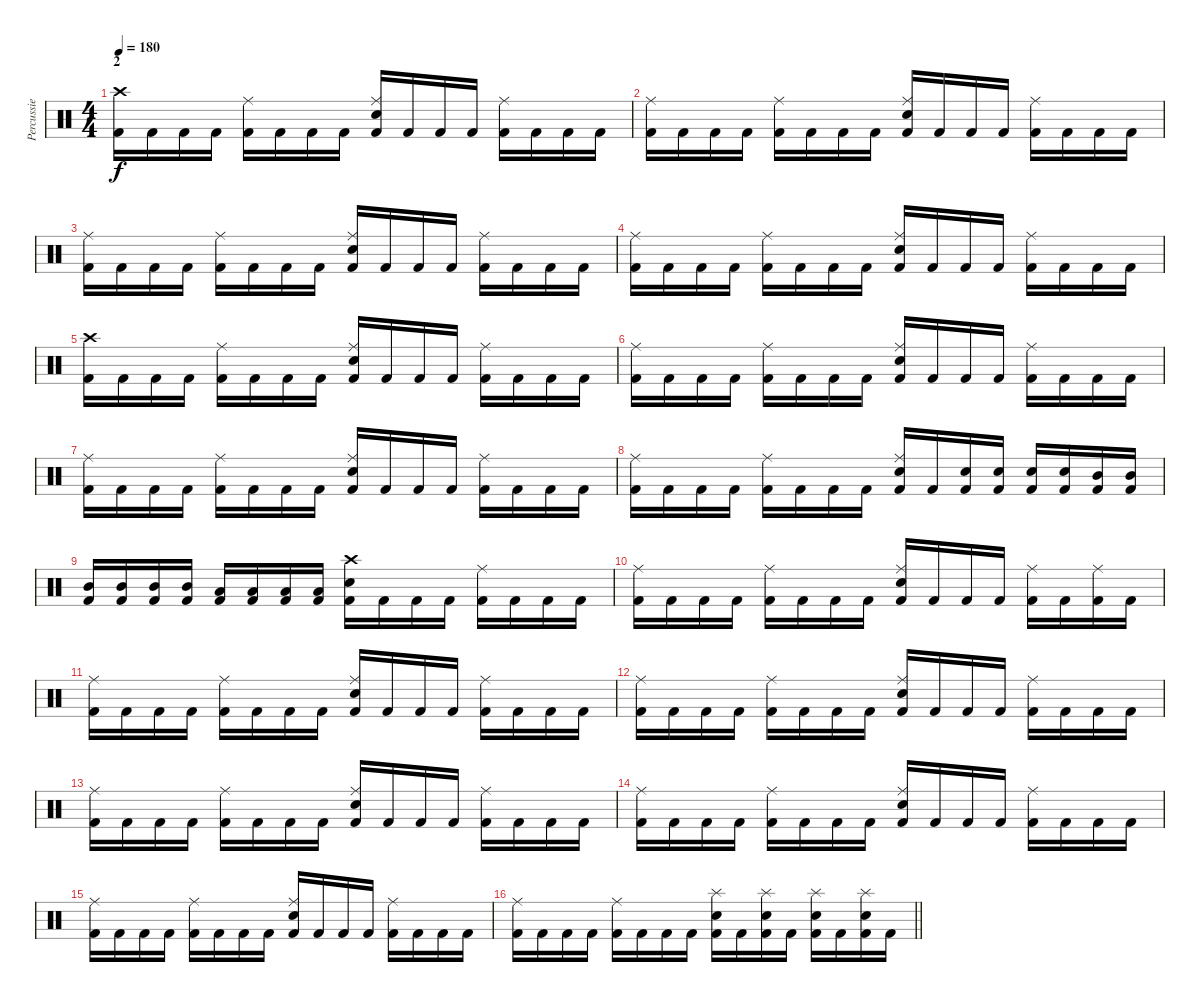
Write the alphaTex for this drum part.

\track ("Percussie" "Percussie") {instrument percussion}
\staff {score}
\articulation defaults
\ts (4 4)
\section ("" "2")
\tempo 180
\clef neutral
\ks c
("Crash high (hit)" "Kick (hit) 2").16{dy f} "Kick (hit) 2".16 "Kick (hit) 2".16 "Kick (hit) 2".16 ("Ride (middle)" "Kick (hit) 2").16 "Kick (hit) 2".16 "Kick (hit) 2".16 "Kick (hit) 2".16 ("Ride (middle)" "Snare (hit) 2" "Kick (hit) 2").16 "Kick (hit) 2".16 "Kick (hit) 2".16 "Kick (hit) 2".16 ("Ride (middle)" "Kick (hit) 2").16 "Kick (hit) 2".16 "Kick (hit) 2".16 "Kick (hit) 2".16 |
("Ride (middle)" "Kick (hit) 2").16 "Kick (hit) 2".16 "Kick (hit) 2".16 "Kick (hit) 2".16 ("Ride (middle)" "Kick (hit) 2").16 "Kick (hit) 2".16 "Kick (hit) 2".16 "Kick (hit) 2".16 ("Ride (middle)" "Snare (hit) 2" "Kick (hit) 2").16 "Kick (hit) 2".16 "Kick (hit) 2".16 "Kick (hit) 2".16 ("Ride (middle)" "Kick (hit) 2").16 "Kick (hit) 2".16 "Kick (hit) 2".16 "Kick (hit) 2".16 |
("Ride (middle)" "Kick (hit) 2").16 "Kick (hit) 2".16 "Kick (hit) 2".16 "Kick (hit) 2".16 ("Ride (middle)" "Kick (hit) 2").16 "Kick (hit) 2".16 "Kick (hit) 2".16 "Kick (hit) 2".16 ("Ride (middle)" "Snare (hit) 2" "Kick (hit) 2").16 "Kick (hit) 2".16 "Kick (hit) 2".16 "Kick (hit) 2".16 ("Ride (middle)" "Kick (hit) 2").16 "Kick (hit) 2".16 "Kick (hit) 2".16 "Kick (hit) 2".16 |
("Ride (middle)" "Kick (hit) 2").16 "Kick (hit) 2".16 "Kick (hit) 2".16 "Kick (hit) 2".16 ("Ride (middle)" "Kick (hit) 2").16 "Kick (hit) 2".16 "Kick (hit) 2".16 "Kick (hit) 2".16 ("Ride (middle)" "Snare (hit) 2" "Kick (hit) 2").16 "Kick (hit) 2".16 "Kick (hit) 2".16 "Kick (hit) 2".16 ("Ride (middle)" "Kick (hit) 2").16 "Kick (hit) 2".16 "Kick (hit) 2".16 "Kick (hit) 2".16 |
("Crash high (hit)" "Kick (hit) 2").16 "Kick (hit) 2".16 "Kick (hit) 2".16 "Kick (hit) 2".16 ("Ride (middle)" "Kick (hit) 2").16 "Kick (hit) 2".16 "Kick (hit) 2".16 "Kick (hit) 2".16 ("Ride (middle)" "Snare (hit) 2" "Kick (hit) 2").16 "Kick (hit) 2".16 "Kick (hit) 2".16 "Kick (hit) 2".16 ("Ride (middle)" "Kick (hit) 2").16 "Kick (hit) 2".16 "Kick (hit) 2".16 "Kick (hit) 2".16 |
("Ride (middle)" "Kick (hit) 2").16 "Kick (hit) 2".16 "Kick (hit) 2".16 "Kick (hit) 2".16 ("Ride (middle)" "Kick (hit) 2").16 "Kick (hit) 2".16 "Kick (hit) 2".16 "Kick (hit) 2".16 ("Ride (middle)" "Snare (hit) 2" "Kick (hit) 2").16 "Kick (hit) 2".16 "Kick (hit) 2".16 "Kick (hit) 2".16 ("Ride (middle)" "Kick (hit) 2").16 "Kick (hit) 2".16 "Kick (hit) 2".16 "Kick (hit) 2".16 |
("Ride (middle)" "Kick (hit) 2").16 "Kick (hit) 2".16 "Kick (hit) 2".16 "Kick (hit) 2".16 ("Ride (middle)" "Kick (hit) 2").16 "Kick (hit) 2".16 "Kick (hit) 2".16 "Kick (hit) 2".16 ("Ride (middle)" "Snare (hit) 2" "Kick (hit) 2").16 "Kick (hit) 2".16 "Kick (hit) 2".16 "Kick (hit) 2".16 ("Ride (middle)" "Kick (hit) 2").16 "Kick (hit) 2".16 "Kick (hit) 2".16 "Kick (hit) 2".16 |
("Ride (middle)" "Kick (hit) 2").16 "Kick (hit) 2".16 "Kick (hit) 2".16 "Kick (hit) 2".16 ("Ride (middle)" "Kick (hit) 2").16 "Kick (hit) 2".16 "Kick (hit) 2".16 "Kick (hit) 2".16 ("Ride (middle)" "Snare (hit) 2" "Kick (hit) 2").16 "Kick (hit) 2".16 ("Snare (hit) 2" "Kick (hit) 2").16 ("Snare (hit) 2" "Kick (hit) 2").16 ("Snare (hit) 2" "Kick (hit) 2").16 ("Snare (hit) 2" "Kick (hit) 2").16 ("Mid Tom (hit)" "Kick (hit) 2").16 ("Mid Tom (hit)" "Kick (hit) 2").16 |
("Mid Tom (hit)" "Kick (hit) 2").16 ("Mid Tom (hit)" "Kick (hit) 2").16 ("Mid Tom (hit)" "Kick (hit) 2").16 ("Mid Tom (hit)" "Kick (hit) 2").16 ("Low Tom (hit)" "Kick (hit) 2").16 ("Low Tom (hit)" "Kick (hit) 2").16 ("Low Tom (hit)" "Kick (hit) 2").16 ("Low Tom (hit)" "Kick (hit) 2").16 ("Crash high (hit)" "Snare (hit) 2" "Kick (hit) 2").16 "Kick (hit) 2".16 "Kick (hit) 2".16 "Kick (hit) 2".16 ("Ride (middle)" "Kick (hit) 2").16 "Kick (hit) 2".16 "Kick (hit) 2".16 "Kick (hit) 2".16 |
("Ride (middle)" "Kick (hit) 2").16 "Kick (hit) 2".16 "Kick (hit) 2".16 "Kick (hit) 2".16 ("Ride (middle)" "Kick (hit) 2").16 "Kick (hit) 2".16 "Kick (hit) 2".16 "Kick (hit) 2".16 ("Ride (middle)" "Snare (hit) 2" "Kick (hit) 2").16 "Kick (hit) 2".16 "Kick (hit) 2".16 "Kick (hit) 2".16 ("Ride (middle)" "Kick (hit) 2").16 "Kick (hit) 2".16 ("Ride (middle)" "Kick (hit) 2").16 "Kick (hit) 2".16 |
("Ride (middle)" "Kick (hit) 2").16 "Kick (hit) 2".16 "Kick (hit) 2".16 "Kick (hit) 2".16 ("Ride (middle)" "Kick (hit) 2").16 "Kick (hit) 2".16 "Kick (hit) 2".16 "Kick (hit) 2".16 ("Ride (middle)" "Snare (hit) 2" "Kick (hit) 2").16 "Kick (hit) 2".16 "Kick (hit) 2".16 "Kick (hit) 2".16 ("Ride (middle)" "Kick (hit) 2").16 "Kick (hit) 2".16 "Kick (hit) 2".16 "Kick (hit) 2".16 |
("Ride (middle)" "Kick (hit) 2").16 "Kick (hit) 2".16 "Kick (hit) 2".16 "Kick (hit) 2".16 ("Ride (middle)" "Kick (hit) 2").16 "Kick (hit) 2".16 "Kick (hit) 2".16 "Kick (hit) 2".16 ("Ride (middle)" "Snare (hit) 2" "Kick (hit) 2").16 "Kick (hit) 2".16 "Kick (hit) 2".16 "Kick (hit) 2".16 ("Ride (middle)" "Kick (hit) 2").16 "Kick (hit) 2".16 "Kick (hit) 2".16 "Kick (hit) 2".16 |
("Ride (middle)" "Kick (hit) 2").16 "Kick (hit) 2".16 "Kick (hit) 2".16 "Kick (hit) 2".16 ("Ride (middle)" "Kick (hit) 2").16 "Kick (hit) 2".16 "Kick (hit) 2".16 "Kick (hit) 2".16 ("Ride (middle)" "Snare (hit) 2" "Kick (hit) 2").16 "Kick (hit) 2".16 "Kick (hit) 2".16 "Kick (hit) 2".16 ("Ride (middle)" "Kick (hit) 2").16 "Kick (hit) 2".16 "Kick (hit) 2".16 "Kick (hit) 2".16 |
("Ride (middle)" "Kick (hit) 2").16 "Kick (hit) 2".16 "Kick (hit) 2".16 "Kick (hit) 2".16 ("Ride (middle)" "Kick (hit) 2").16 "Kick (hit) 2".16 "Kick (hit) 2".16 "Kick (hit) 2".16 ("Ride (middle)" "Snare (hit) 2" "Kick (hit) 2").16 "Kick (hit) 2".16 "Kick (hit) 2".16 "Kick (hit) 2".16 ("Ride (middle)" "Kick (hit) 2").16 "Kick (hit) 2".16 "Kick (hit) 2".16 "Kick (hit) 2".16 |
("Ride (middle)" "Kick (hit) 2").16 "Kick (hit) 2".16 "Kick (hit) 2".16 "Kick (hit) 2".16 ("Ride (middle)" "Kick (hit) 2").16 "Kick (hit) 2".16 "Kick (hit) 2".16 "Kick (hit) 2".16 ("Ride (middle)" "Snare (hit) 2" "Kick (hit) 2").16 "Kick (hit) 2".16 "Kick (hit) 2".16 "Kick (hit) 2".16 ("Ride (middle)" "Kick (hit) 2").16 "Kick (hit) 2".16 "Kick (hit) 2".16 "Kick (hit) 2".16 |
\barLineRight lightlight
("Ride (middle)" "Kick (hit) 2").16 "Kick (hit) 2".16 "Kick (hit) 2".16 "Kick (hit) 2".16 ("Ride (middle)" "Kick (hit) 2").16 "Kick (hit) 2".16 "Kick (hit) 2".16 "Kick (hit) 2".16 ("Splash (hit)" "Snare (hit) 2" "Kick (hit) 2").16 "Kick (hit) 2".16 ("Splash (hit)" "Snare (hit) 2" "Kick (hit) 2").16 "Kick (hit) 2".16 ("Splash (hit)" "Snare (hit) 2" "Kick (hit) 2").16 "Kick (hit) 2".16 ("Splash (hit)" "Snare (hit) 2" "Kick (hit) 2").16 "Kick (hit) 2".16
